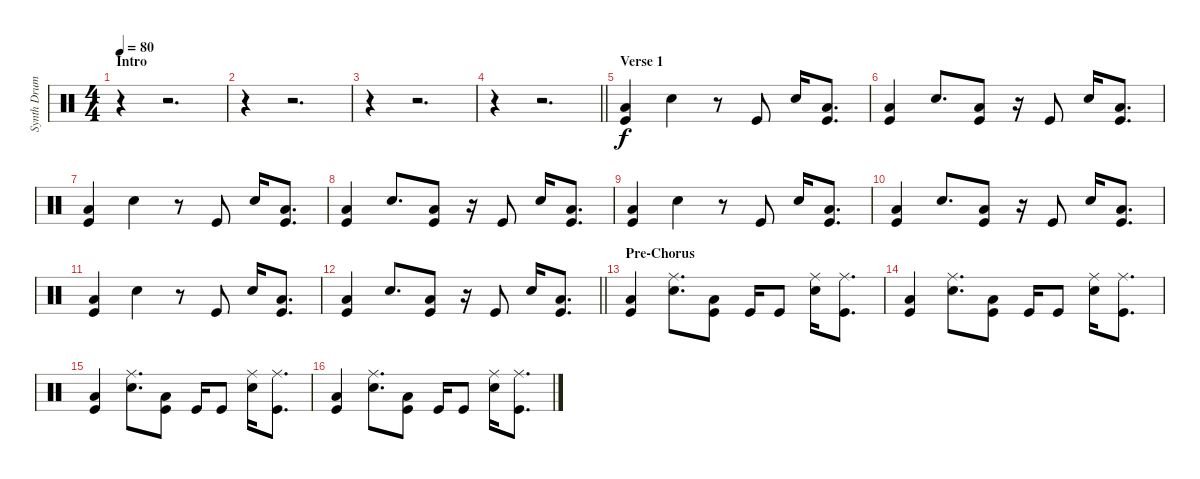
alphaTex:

\track ("Synth Drums" "Synth Drum") {instrument percussion}
\staff {score}
\articulation defaults
\ts (4 4)
\section ("" "Intro")
\tempo 80
\clef neutral
\ks c
r.4{dy f} r.2{d} |
r.4 r.2{d} |
r.4 r.2{d} |
\barLineRight lightlight
r.4 r.2{d} |
\section ("" "Verse 1")
("Kick (hit)" "Low Floor Tom (hit)").4 "Snare (hit) 2".4 r.8 "Kick (hit)".8 "Snare (hit) 2".16 ("Kick (hit)" "Low Floor Tom (hit)").8{d} |
("Kick (hit)" "Low Floor Tom (hit)").4 "Snare (hit) 2".8{d} ("Kick (hit)" "Low Floor Tom (hit)").8 r.16 "Kick (hit)".8 "Snare (hit) 2".16 ("Kick (hit)" "Low Floor Tom (hit)").8{d} |
("Kick (hit)" "Low Floor Tom (hit)").4 "Snare (hit) 2".4 r.8 "Kick (hit)".8 "Snare (hit) 2".16 ("Kick (hit)" "Low Floor Tom (hit)").8{d} |
("Kick (hit)" "Low Floor Tom (hit)").4 "Snare (hit) 2".8{d} ("Kick (hit)" "Low Floor Tom (hit)").8 r.16 "Kick (hit)".8 "Snare (hit) 2".16 ("Kick (hit)" "Low Floor Tom (hit)").8{d} |
("Kick (hit)" "Low Floor Tom (hit)").4 "Snare (hit) 2".4 r.8 "Kick (hit)".8 "Snare (hit) 2".16 ("Kick (hit)" "Low Floor Tom (hit)").8{d} |
("Kick (hit)" "Low Floor Tom (hit)").4 "Snare (hit) 2".8{d} ("Kick (hit)" "Low Floor Tom (hit)").8 r.16 "Kick (hit)".8 "Snare (hit) 2".16 ("Kick (hit)" "Low Floor Tom (hit)").8{d} |
("Kick (hit)" "Low Floor Tom (hit)").4 "Snare (hit) 2".4 r.8 "Kick (hit)".8 "Snare (hit) 2".16 ("Kick (hit)" "Low Floor Tom (hit)").8{d} |
\barLineRight lightlight
("Kick (hit)" "Low Floor Tom (hit)").4 "Snare (hit) 2".8{d} ("Kick (hit)" "Low Floor Tom (hit)").8 r.16 "Kick (hit)".8 "Snare (hit) 2".16 ("Kick (hit)" "Low Floor Tom (hit)").8{d} |
\section ("" "Pre-Chorus")
("Kick (hit)" "Low Floor Tom (hit)").4 ("Snare (hit) 2" "Ride (middle)").8{d} ("Kick (hit)" "Low Floor Tom (hit)").8 "Kick (hit)".16 "Kick (hit)".8 ("Snare (hit) 2" "Ride (middle)").16 ("Kick (hit)" "Ride (middle)").8{d} |
("Kick (hit)" "Low Floor Tom (hit)").4 ("Snare (hit) 2" "Ride (middle)").8{d} ("Kick (hit)" "Low Floor Tom (hit)").8 "Kick (hit)".16 "Kick (hit)".8 ("Snare (hit) 2" "Ride (middle)").16 ("Kick (hit)" "Ride (middle)").8{d} |
("Kick (hit)" "Low Floor Tom (hit)").4 ("Snare (hit) 2" "Ride (middle)").8{d} ("Kick (hit)" "Low Floor Tom (hit)").8 "Kick (hit)".16 "Kick (hit)".8 ("Snare (hit) 2" "Ride (middle)").16 ("Kick (hit)" "Ride (middle)").8{d} |
("Kick (hit)" "Low Floor Tom (hit)").4 ("Snare (hit) 2" "Ride (middle)").8{d} ("Kick (hit)" "Low Floor Tom (hit)").8 "Kick (hit)".16 "Kick (hit)".8 ("Snare (hit) 2" "Ride (middle)").16 ("Kick (hit)" "Ride (middle)").8{d}
